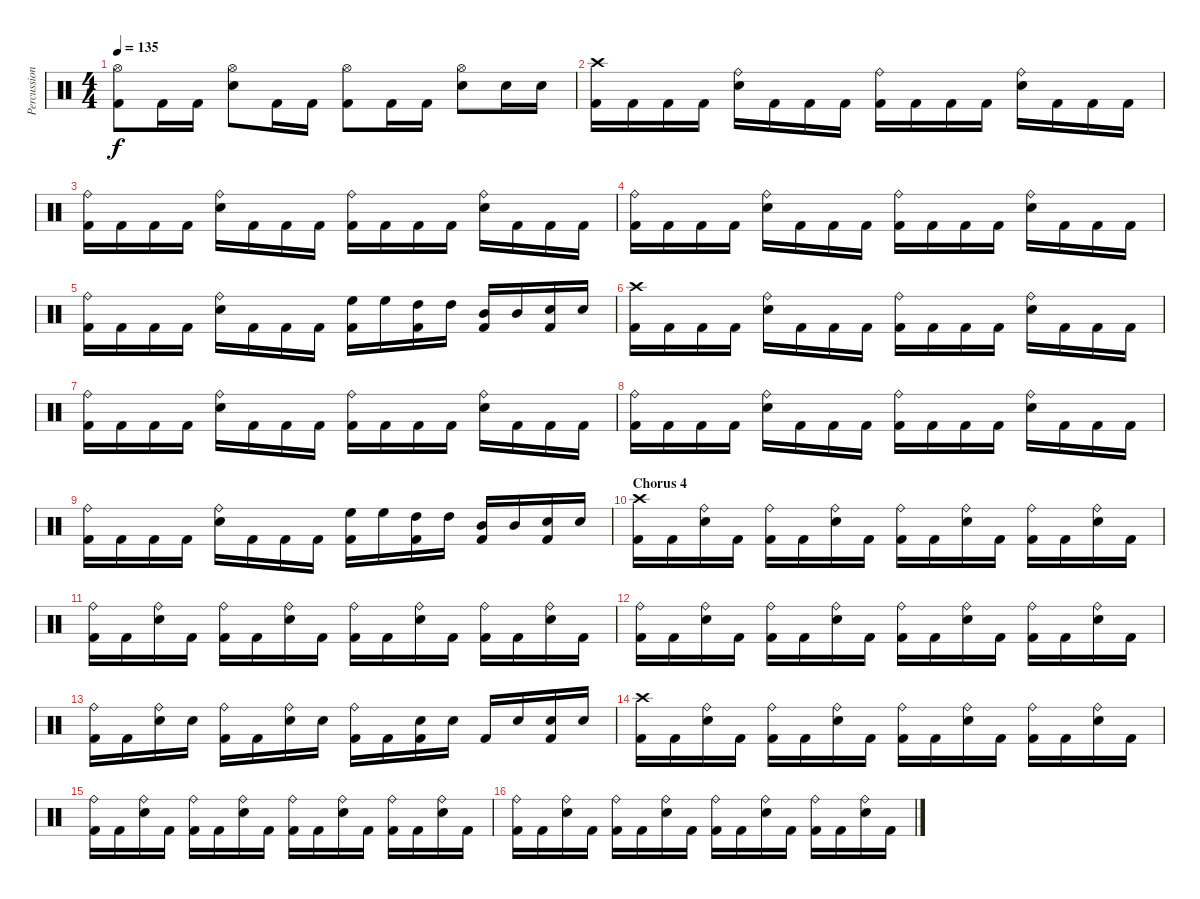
\track ("Percussion" "Percussion") {instrument percussion}
\staff {score}
\articulation defaults
\ts (4 4)
\tempo 135
\clef neutral
\ks c
("Kick (hit) 2" "Hi-Hat (open)").8{dy f} "Kick (hit) 2".16 "Kick (hit) 2".16 ("Electric Snare (hit)" "Hi-Hat (open)").8 "Kick (hit) 2".16 "Kick (hit) 2".16 ("Kick (hit) 2" "Hi-Hat (open)").8 "Kick (hit) 2".16 "Kick (hit) 2".16 ("Electric Snare (hit)" "Hi-Hat (open)").8 "Electric Snare (hit)".16 "Electric Snare (hit)".16 |
("Kick (hit) 2" "Crash high (hit)").16 "Kick (hit) 2".16 "Kick (hit) 2".16 "Kick (hit) 2".16 ("Electric Snare (hit)" "Ride (bell)").16 "Kick (hit) 2".16 "Kick (hit) 2".16 "Kick (hit) 2".16 ("Kick (hit) 2" "Ride (bell)").16 "Kick (hit) 2".16 "Kick (hit) 2".16 "Kick (hit) 2".16 ("Electric Snare (hit)" "Ride (bell)").16 "Kick (hit) 2".16 "Kick (hit) 2".16 "Kick (hit) 2".16 |
("Kick (hit) 2" "Ride (bell)").16 "Kick (hit) 2".16 "Kick (hit) 2".16 "Kick (hit) 2".16 ("Electric Snare (hit)" "Ride (bell)").16 "Kick (hit) 2".16 "Kick (hit) 2".16 "Kick (hit) 2".16 ("Kick (hit) 2" "Ride (bell)").16 "Kick (hit) 2".16 "Kick (hit) 2".16 "Kick (hit) 2".16 ("Electric Snare (hit)" "Ride (bell)").16 "Kick (hit) 2".16 "Kick (hit) 2".16 "Kick (hit) 2".16 |
("Kick (hit) 2" "Ride (bell)").16 "Kick (hit) 2".16 "Kick (hit) 2".16 "Kick (hit) 2".16 ("Electric Snare (hit)" "Ride (bell)").16 "Kick (hit) 2".16 "Kick (hit) 2".16 "Kick (hit) 2".16 ("Kick (hit) 2" "Ride (bell)").16 "Kick (hit) 2".16 "Kick (hit) 2".16 "Kick (hit) 2".16 ("Electric Snare (hit)" "Ride (bell)").16 "Kick (hit) 2".16 "Kick (hit) 2".16 "Kick (hit) 2".16 |
("Kick (hit) 2" "Ride (bell)").16 "Kick (hit) 2".16 "Kick (hit) 2".16 "Kick (hit) 2".16 ("Electric Snare (hit)" "Ride (bell)").16 "Kick (hit) 2".16 "Kick (hit) 2".16 "Kick (hit) 2".16 ("High Floor Tom (hit)" "Kick (hit) 2").16 "High Floor Tom (hit)".16 ("High Tom (hit)" "Kick (hit) 2").16 "High Tom (hit)".16 ("Mid Tom (hit)" "Kick (hit) 2").16 "Mid Tom (hit)".16 ("Electric Snare (hit)" "Kick (hit) 2").16 "Electric Snare (hit)".16 |
("Kick (hit) 2" "Crash high (hit)").16 "Kick (hit) 2".16 "Kick (hit) 2".16 "Kick (hit) 2".16 ("Electric Snare (hit)" "Ride (bell)").16 "Kick (hit) 2".16 "Kick (hit) 2".16 "Kick (hit) 2".16 ("Kick (hit) 2" "Ride (bell)").16 "Kick (hit) 2".16 "Kick (hit) 2".16 "Kick (hit) 2".16 ("Electric Snare (hit)" "Ride (bell)").16 "Kick (hit) 2".16 "Kick (hit) 2".16 "Kick (hit) 2".16 |
("Kick (hit) 2" "Ride (bell)").16 "Kick (hit) 2".16 "Kick (hit) 2".16 "Kick (hit) 2".16 ("Electric Snare (hit)" "Ride (bell)").16 "Kick (hit) 2".16 "Kick (hit) 2".16 "Kick (hit) 2".16 ("Kick (hit) 2" "Ride (bell)").16 "Kick (hit) 2".16 "Kick (hit) 2".16 "Kick (hit) 2".16 ("Electric Snare (hit)" "Ride (bell)").16 "Kick (hit) 2".16 "Kick (hit) 2".16 "Kick (hit) 2".16 |
("Kick (hit) 2" "Ride (bell)").16 "Kick (hit) 2".16 "Kick (hit) 2".16 "Kick (hit) 2".16 ("Electric Snare (hit)" "Ride (bell)").16 "Kick (hit) 2".16 "Kick (hit) 2".16 "Kick (hit) 2".16 ("Kick (hit) 2" "Ride (bell)").16 "Kick (hit) 2".16 "Kick (hit) 2".16 "Kick (hit) 2".16 ("Electric Snare (hit)" "Ride (bell)").16 "Kick (hit) 2".16 "Kick (hit) 2".16 "Kick (hit) 2".16 |
("Kick (hit) 2" "Ride (bell)").16 "Kick (hit) 2".16 "Kick (hit) 2".16 "Kick (hit) 2".16 ("Electric Snare (hit)" "Ride (bell)").16 "Kick (hit) 2".16 "Kick (hit) 2".16 "Kick (hit) 2".16 ("High Floor Tom (hit)" "Kick (hit) 2").16 "High Floor Tom (hit)".16 ("High Tom (hit)" "Kick (hit) 2").16 "High Tom (hit)".16 ("Mid Tom (hit)" "Kick (hit) 2").16 "Mid Tom (hit)".16 ("Electric Snare (hit)" "Kick (hit) 2").16 "Electric Snare (hit)".16 |
\section ("" "Chorus 4")
("Kick (hit) 2" "Crash high (hit)").16 "Kick (hit) 2".16 ("Electric Snare (hit)" "Ride (bell)").16 "Kick (hit) 2".16 ("Kick (hit) 2" "Ride (bell)").16 "Kick (hit) 2".16 ("Electric Snare (hit)" "Ride (bell)").16 "Kick (hit) 2".16 ("Kick (hit) 2" "Ride (bell)").16 "Kick (hit) 2".16 ("Electric Snare (hit)" "Ride (bell)").16 "Kick (hit) 2".16 ("Kick (hit) 2" "Ride (bell)").16 "Kick (hit) 2".16 ("Electric Snare (hit)" "Ride (bell)").16 "Kick (hit) 2".16 |
("Kick (hit) 2" "Ride (bell)").16 "Kick (hit) 2".16 ("Electric Snare (hit)" "Ride (bell)").16 "Kick (hit) 2".16 ("Kick (hit) 2" "Ride (bell)").16 "Kick (hit) 2".16 ("Electric Snare (hit)" "Ride (bell)").16 "Kick (hit) 2".16 ("Kick (hit) 2" "Ride (bell)").16 "Kick (hit) 2".16 ("Electric Snare (hit)" "Ride (bell)").16 "Kick (hit) 2".16 ("Kick (hit) 2" "Ride (bell)").16 "Kick (hit) 2".16 ("Electric Snare (hit)" "Ride (bell)").16 "Kick (hit) 2".16 |
("Kick (hit) 2" "Ride (bell)").16 "Kick (hit) 2".16 ("Electric Snare (hit)" "Ride (bell)").16 "Kick (hit) 2".16 ("Kick (hit) 2" "Ride (bell)").16 "Kick (hit) 2".16 ("Electric Snare (hit)" "Ride (bell)").16 "Kick (hit) 2".16 ("Kick (hit) 2" "Ride (bell)").16 "Kick (hit) 2".16 ("Electric Snare (hit)" "Ride (bell)").16 "Kick (hit) 2".16 ("Kick (hit) 2" "Ride (bell)").16 "Kick (hit) 2".16 ("Electric Snare (hit)" "Ride (bell)").16 "Kick (hit) 2".16 |
("Kick (hit) 2" "Ride (bell)").16 "Kick (hit) 2".16 ("Electric Snare (hit)" "Ride (bell)").16 "Electric Snare (hit)".16 ("Kick (hit) 2" "Ride (bell)").16 "Kick (hit) 2".16 ("Electric Snare (hit)" "Ride (bell)").16 "Electric Snare (hit)".16 ("Kick (hit) 2" "Ride (bell)").16 "Kick (hit) 2".16 ("Electric Snare (hit)" "Kick (hit) 2").16 "Electric Snare (hit)".16 "Kick (hit) 2".16 "Electric Snare (hit)".16 ("Electric Snare (hit)" "Kick (hit) 2").16 "Electric Snare (hit)".16 |
("Kick (hit) 2" "Crash high (hit)").16 "Kick (hit) 2".16 ("Electric Snare (hit)" "Ride (bell)").16 "Kick (hit) 2".16 ("Kick (hit) 2" "Ride (bell)").16 "Kick (hit) 2".16 ("Electric Snare (hit)" "Ride (bell)").16 "Kick (hit) 2".16 ("Kick (hit) 2" "Ride (bell)").16 "Kick (hit) 2".16 ("Electric Snare (hit)" "Ride (bell)").16 "Kick (hit) 2".16 ("Kick (hit) 2" "Ride (bell)").16 "Kick (hit) 2".16 ("Electric Snare (hit)" "Ride (bell)").16 "Kick (hit) 2".16 |
("Kick (hit) 2" "Ride (bell)").16 "Kick (hit) 2".16 ("Electric Snare (hit)" "Ride (bell)").16 "Kick (hit) 2".16 ("Kick (hit) 2" "Ride (bell)").16 "Kick (hit) 2".16 ("Electric Snare (hit)" "Ride (bell)").16 "Kick (hit) 2".16 ("Kick (hit) 2" "Ride (bell)").16 "Kick (hit) 2".16 ("Electric Snare (hit)" "Ride (bell)").16 "Kick (hit) 2".16 ("Kick (hit) 2" "Ride (bell)").16 "Kick (hit) 2".16 ("Electric Snare (hit)" "Ride (bell)").16 "Kick (hit) 2".16 |
("Kick (hit) 2" "Ride (bell)").16 "Kick (hit) 2".16 ("Electric Snare (hit)" "Ride (bell)").16 "Kick (hit) 2".16 ("Kick (hit) 2" "Ride (bell)").16 "Kick (hit) 2".16 ("Electric Snare (hit)" "Ride (bell)").16 "Kick (hit) 2".16 ("Kick (hit) 2" "Ride (bell)").16 "Kick (hit) 2".16 ("Electric Snare (hit)" "Ride (bell)").16 "Kick (hit) 2".16 ("Kick (hit) 2" "Ride (bell)").16 "Kick (hit) 2".16 ("Electric Snare (hit)" "Ride (bell)").16 "Kick (hit) 2".16
